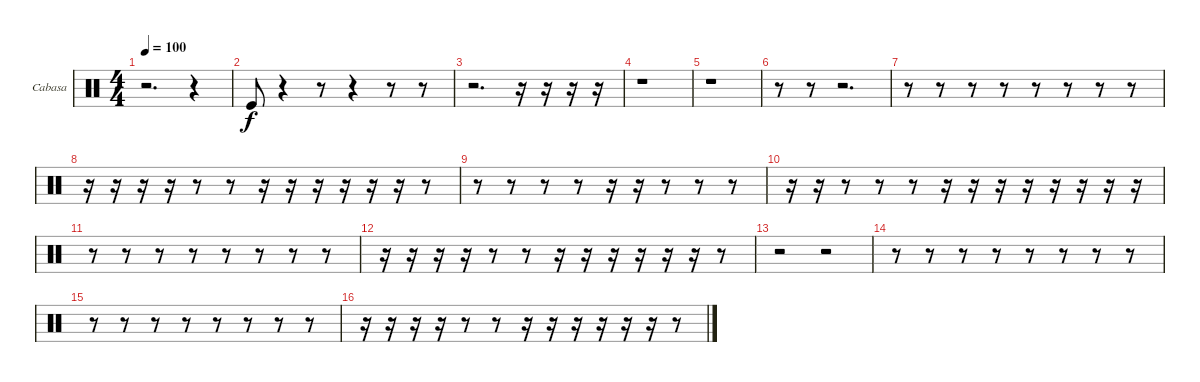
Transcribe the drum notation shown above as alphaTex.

\bracketExtendMode groupsimilarinstruments
\firstSystemTrackNameOrientation horizontal
\otherSystemsTrackNameOrientation horizontal
\track ("Cabasa" "Cabasa") {instrument percussion}
\staff {score}
\articulation defaults
\ts (4 4)
\tempo 100
\clef neutral
\ks c
r.2{d dy f} r.4 |
"Kick (hit)".8 r.4 r.8 r.4 r.8 r.8 |
r.2{d} r.16 r.16 r.16 r.16 |
r.1 |
r.1 |
r.8 r.8 r.2{d} |
r.8 r.8 r.8 r.8 r.8 r.8 r.8 r.8 |
r.16 r.16 r.16 r.16 r.8 r.8 r.16 r.16 r.16 r.16 r.16 r.16 r.8 |
r.8 r.8 r.8 r.8 r.16 r.16 r.8 r.8 r.8 |
r.16 r.16 r.8 r.8 r.8 r.16 r.16 r.16 r.16 r.16 r.16 r.16 r.16 |
r.8 r.8 r.8 r.8 r.8 r.8 r.8 r.8 |
r.16 r.16 r.16 r.16 r.8 r.8 r.16 r.16 r.16 r.16 r.16 r.16 r.8 |
r.2 r.2 |
r.8 r.8 r.8 r.8 r.8 r.8 r.8 r.8 |
r.8 r.8 r.8 r.8 r.8 r.8 r.8 r.8 |
r.16 r.16 r.16 r.16 r.8 r.8 r.16 r.16 r.16 r.16 r.16 r.16 r.8
